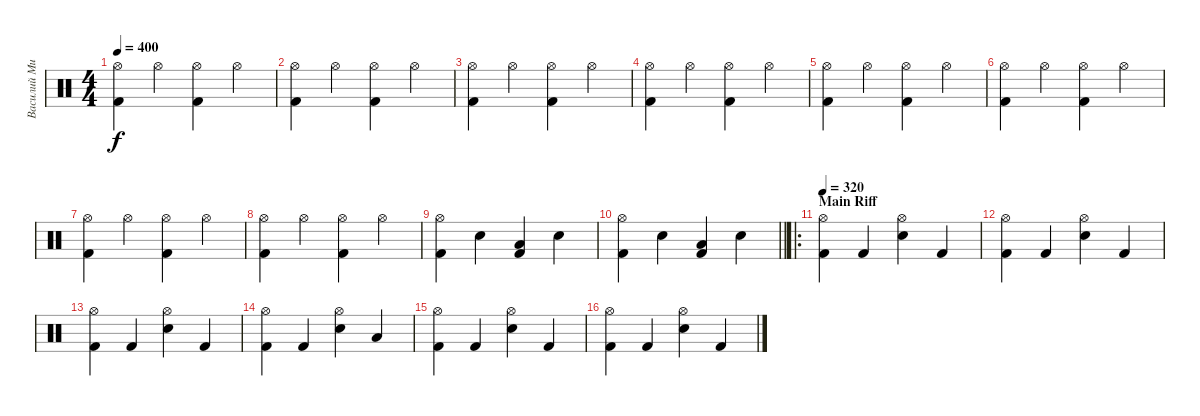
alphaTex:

\track ("Василий Михалыч-ударные" "Василий Ми") {instrument percussion}
\staff {score}
\articulation defaults
\ts (4 4)
\tempo 400
\clef neutral
\ks c
("Kick (hit) 2" "Hi-Hat (open)").4{dy f} "Hi-Hat (open)".4 ("Kick (hit) 2" "Hi-Hat (open)").4 "Hi-Hat (open)".4 |
("Kick (hit) 2" "Hi-Hat (open)").4 "Hi-Hat (open)".4 ("Kick (hit) 2" "Hi-Hat (open)").4 "Hi-Hat (open)".4 |
("Kick (hit) 2" "Hi-Hat (open)").4 "Hi-Hat (open)".4 ("Kick (hit) 2" "Hi-Hat (open)").4 "Hi-Hat (open)".4 |
("Kick (hit) 2" "Hi-Hat (open)").4 "Hi-Hat (open)".4 ("Kick (hit) 2" "Hi-Hat (open)").4 "Hi-Hat (open)".4 |
("Kick (hit) 2" "Hi-Hat (open)").4 "Hi-Hat (open)".4 ("Kick (hit) 2" "Hi-Hat (open)").4 "Hi-Hat (open)".4 |
("Kick (hit) 2" "Hi-Hat (open)").4 "Hi-Hat (open)".4 ("Kick (hit) 2" "Hi-Hat (open)").4 "Hi-Hat (open)".4 |
("Kick (hit) 2" "Hi-Hat (open)").4 "Hi-Hat (open)".4 ("Kick (hit) 2" "Hi-Hat (open)").4 "Hi-Hat (open)".4 |
("Kick (hit) 2" "Hi-Hat (open)").4 "Hi-Hat (open)".4 ("Kick (hit) 2" "Hi-Hat (open)").4 "Hi-Hat (open)".4 |
("Kick (hit) 2" "Hi-Hat (open)").4 "Snare (hit) 2".4 ("Kick (hit) 2" "Low Tom (hit)").4 "Snare (hit) 2".4 |
\barLineRight lightlight
("Kick (hit) 2" "Hi-Hat (open)").4 "Snare (hit) 2".4 ("Kick (hit) 2" "Low Tom (hit)").4 "Snare (hit) 2".4 |
\ro
\section ("" "Main Riff")
\tempo 320
("Kick (hit) 2" "Hi-Hat (open)").4 "Kick (hit) 2".4 ("Snare (hit) 2" "Hi-Hat (open)").4 "Kick (hit) 2".4 |
("Kick (hit) 2" "Hi-Hat (open)").4 "Kick (hit) 2".4 ("Snare (hit) 2" "Hi-Hat (open)").4 "Kick (hit) 2".4 |
("Kick (hit) 2" "Hi-Hat (open)").4 "Kick (hit) 2".4 ("Snare (hit) 2" "Hi-Hat (open)").4 "Kick (hit) 2".4 |
("Kick (hit) 2" "Hi-Hat (open)").4 "Kick (hit) 2".4 ("Snare (hit) 2" "Hi-Hat (open)").4 "Low Tom (hit)".4 |
("Kick (hit) 2" "Hi-Hat (open)").4 "Kick (hit) 2".4 ("Snare (hit) 2" "Hi-Hat (open)").4 "Kick (hit) 2".4 |
("Kick (hit) 2" "Hi-Hat (open)").4 "Kick (hit) 2".4 ("Snare (hit) 2" "Hi-Hat (open)").4 "Kick (hit) 2".4
